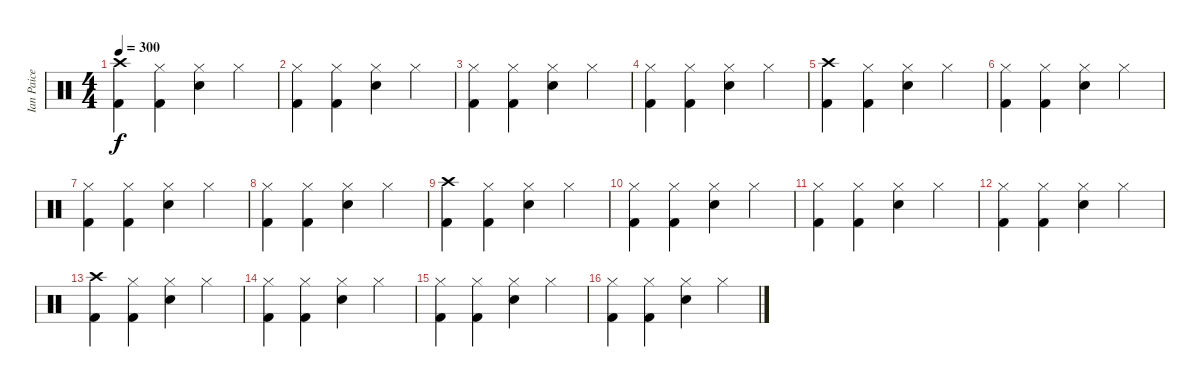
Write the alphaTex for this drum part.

\track ("Ian Paice" "Ian Paice") {instrument percussion}
\staff {score}
\articulation defaults
\ts (4 4)
\tempo 300
\clef neutral
\ks c
("Crash high (hit)" "Kick (hit) 2").4{dy f} ("Hi-Hat (closed)" "Kick (hit) 2").4 ("Hi-Hat (closed)" "Electric Snare (hit)").4 "Hi-Hat (closed)".4 |
("Hi-Hat (closed)" "Kick (hit) 2").4 ("Hi-Hat (closed)" "Kick (hit) 2").4 ("Hi-Hat (closed)" "Electric Snare (hit)").4 "Hi-Hat (closed)".4 |
("Hi-Hat (closed)" "Kick (hit) 2").4 ("Hi-Hat (closed)" "Kick (hit) 2").4 ("Hi-Hat (closed)" "Electric Snare (hit)").4 "Hi-Hat (closed)".4 |
("Hi-Hat (closed)" "Kick (hit) 2").4 ("Hi-Hat (closed)" "Kick (hit) 2").4 ("Hi-Hat (closed)" "Electric Snare (hit)").4 "Hi-Hat (closed)".4 |
("Crash high (hit)" "Kick (hit) 2").4 ("Hi-Hat (closed)" "Kick (hit) 2").4 ("Hi-Hat (closed)" "Electric Snare (hit)").4 "Hi-Hat (closed)".4 |
("Hi-Hat (closed)" "Kick (hit) 2").4 ("Hi-Hat (closed)" "Kick (hit) 2").4 ("Hi-Hat (closed)" "Electric Snare (hit)").4 "Hi-Hat (closed)".4 |
("Hi-Hat (closed)" "Kick (hit) 2").4 ("Hi-Hat (closed)" "Kick (hit) 2").4 ("Hi-Hat (closed)" "Electric Snare (hit)").4 "Hi-Hat (closed)".4 |
("Hi-Hat (closed)" "Kick (hit) 2").4 ("Hi-Hat (closed)" "Kick (hit) 2").4 ("Hi-Hat (closed)" "Electric Snare (hit)").4 "Hi-Hat (closed)".4 |
("Crash high (hit)" "Kick (hit) 2").4 ("Hi-Hat (closed)" "Kick (hit) 2").4 ("Hi-Hat (closed)" "Electric Snare (hit)").4 "Hi-Hat (closed)".4 |
("Hi-Hat (closed)" "Kick (hit) 2").4 ("Hi-Hat (closed)" "Kick (hit) 2").4 ("Hi-Hat (closed)" "Electric Snare (hit)").4 "Hi-Hat (closed)".4 |
("Hi-Hat (closed)" "Kick (hit) 2").4 ("Hi-Hat (closed)" "Kick (hit) 2").4 ("Hi-Hat (closed)" "Electric Snare (hit)").4 "Hi-Hat (closed)".4 |
("Hi-Hat (closed)" "Kick (hit) 2").4 ("Hi-Hat (closed)" "Kick (hit) 2").4 ("Hi-Hat (closed)" "Electric Snare (hit)").4 "Hi-Hat (closed)".4 |
("Crash high (hit)" "Kick (hit) 2").4 ("Hi-Hat (closed)" "Kick (hit) 2").4 ("Hi-Hat (closed)" "Electric Snare (hit)").4 "Hi-Hat (closed)".4 |
("Hi-Hat (closed)" "Kick (hit) 2").4 ("Hi-Hat (closed)" "Kick (hit) 2").4 ("Hi-Hat (closed)" "Electric Snare (hit)").4 "Hi-Hat (closed)".4 |
("Hi-Hat (closed)" "Kick (hit) 2").4 ("Hi-Hat (closed)" "Kick (hit) 2").4 ("Hi-Hat (closed)" "Electric Snare (hit)").4 "Hi-Hat (closed)".4 |
("Hi-Hat (closed)" "Kick (hit) 2").4 ("Hi-Hat (closed)" "Kick (hit) 2").4 ("Hi-Hat (closed)" "Electric Snare (hit)").4 "Hi-Hat (closed)".4
